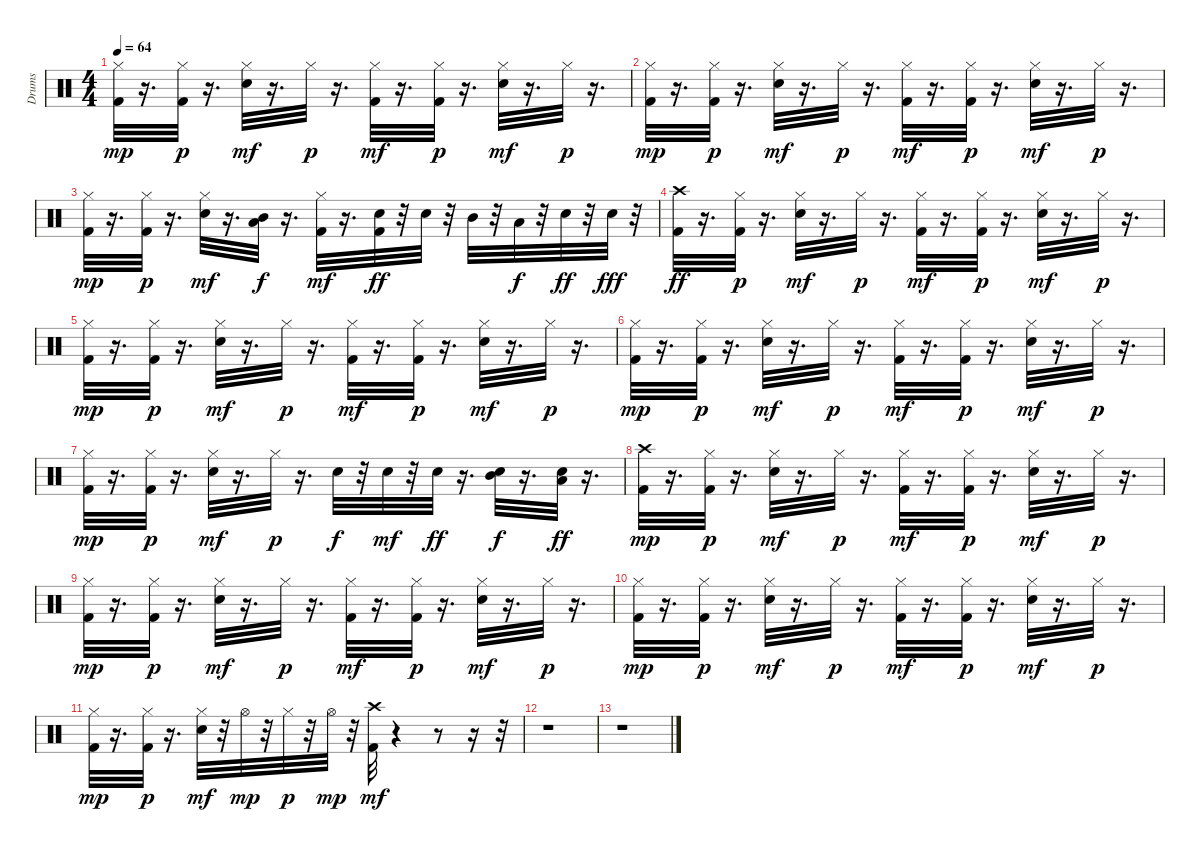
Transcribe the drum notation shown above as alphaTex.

\track ("Drums" "Drums") {instrument percussion}
\staff {score}
\articulation defaults
\ts (4 4)
\tempo 64
\clef neutral
\ks c
("Kick (hit) 2" "Hi-Hat (closed)").32{dy mp} r.16{d} ("Kick (hit) 2" "Hi-Hat (closed)").32{dy p} r.16{d} ("Snare (hit) 2" "Hi-Hat (closed)").32{dy mf} r.16{d} "Hi-Hat (closed)".32{dy p} r.16{d} ("Kick (hit) 2" "Hi-Hat (closed)").32{dy mf} r.16{d} ("Kick (hit) 2" "Hi-Hat (closed)").32{dy p} r.16{d} ("Snare (hit) 2" "Hi-Hat (closed)").32{dy mf} r.16{d} "Hi-Hat (closed)".32{dy p} r.16{d} |
("Kick (hit) 2" "Hi-Hat (closed)").32{dy mp} r.16{d} ("Kick (hit) 2" "Hi-Hat (closed)").32{dy p} r.16{d} ("Snare (hit) 2" "Hi-Hat (closed)").32{dy mf} r.16{d} "Hi-Hat (closed)".32{dy p} r.16{d} ("Kick (hit) 2" "Hi-Hat (closed)").32{dy mf} r.16{d} ("Kick (hit) 2" "Hi-Hat (closed)").32{dy p} r.16{d} ("Snare (hit) 2" "Hi-Hat (closed)").32{dy mf} r.16{d} "Hi-Hat (closed)".32{dy p} r.16{d} |
("Kick (hit) 2" "Hi-Hat (closed)").32{dy mp} r.16{d} ("Kick (hit) 2" "Hi-Hat (closed)").32{dy p} r.16{d} ("Snare (hit) 2" "Hi-Hat (closed)").32{dy mf} r.16{d} ("Mid Tom (hit)" "Low Tom (hit)").32{dy f} r.16{d} ("Kick (hit) 2" "Hi-Hat (closed)").32{dy mf} r.16{d} ("Kick (hit) 2" "Snare (hit) 2").32{dy ff} r.32 "Snare (hit) 2".32 r.32 "Mid Tom (hit)".32 r.32 "Low Tom (hit)".32{dy f} r.32 "Snare (hit) 2".32{dy ff} r.32 "Snare (hit) 2".32{dy fff} r.32 |
("Kick (hit) 2" "Crash high (hit)").32{dy ff} r.16{d} ("Kick (hit) 2" "Hi-Hat (closed)").32{dy p} r.16{d} ("Snare (hit) 2" "Hi-Hat (closed)").32{dy mf} r.16{d} "Hi-Hat (closed)".32{dy p} r.16{d} ("Kick (hit) 2" "Hi-Hat (closed)").32{dy mf} r.16{d} ("Kick (hit) 2" "Hi-Hat (closed)").32{dy p} r.16{d} ("Snare (hit) 2" "Hi-Hat (closed)").32{dy mf} r.16{d} "Hi-Hat (closed)".32{dy p} r.16{d} |
("Kick (hit) 2" "Hi-Hat (closed)").32{dy mp} r.16{d} ("Kick (hit) 2" "Hi-Hat (closed)").32{dy p} r.16{d} ("Snare (hit) 2" "Hi-Hat (closed)").32{dy mf} r.16{d} "Hi-Hat (closed)".32{dy p} r.16{d} ("Kick (hit) 2" "Hi-Hat (closed)").32{dy mf} r.16{d} ("Kick (hit) 2" "Hi-Hat (closed)").32{dy p} r.16{d} ("Snare (hit) 2" "Hi-Hat (closed)").32{dy mf} r.16{d} "Hi-Hat (closed)".32{dy p} r.16{d} |
("Kick (hit) 2" "Hi-Hat (closed)").32{dy mp} r.16{d} ("Kick (hit) 2" "Hi-Hat (closed)").32{dy p} r.16{d} ("Snare (hit) 2" "Hi-Hat (closed)").32{dy mf} r.16{d} "Hi-Hat (closed)".32{dy p} r.16{d} ("Kick (hit) 2" "Hi-Hat (closed)").32{dy mf} r.16{d} ("Kick (hit) 2" "Hi-Hat (closed)").32{dy p} r.16{d} ("Snare (hit) 2" "Hi-Hat (closed)").32{dy mf} r.16{d} "Hi-Hat (closed)".32{dy p} r.16{d} |
("Kick (hit) 2" "Hi-Hat (closed)").32{dy mp} r.16{d} ("Kick (hit) 2" "Hi-Hat (closed)").32{dy p} r.16{d} ("Snare (hit) 2" "Hi-Hat (closed)").32{dy mf} r.16{d} "Hi-Hat (closed)".32{dy p} r.16{d} "Snare (hit) 2".32{dy f} r.32 "Snare (hit) 2".32{dy mf} r.32 "Snare (hit) 2".32{dy ff} r.16{d} ("Snare (hit) 2" "Mid Tom (hit)").32{dy f} r.16{d} ("Snare (hit) 2" "Low Tom (hit)").32{dy ff} r.16{d} |
("Kick (hit) 2" "Crash high (hit)").32{dy mp} r.16{d} ("Kick (hit) 2" "Hi-Hat (closed)").32{dy p} r.16{d} ("Snare (hit) 2" "Hi-Hat (closed)").32{dy mf} r.16{d} "Hi-Hat (closed)".32{dy p} r.16{d} ("Kick (hit) 2" "Hi-Hat (closed)").32{dy mf} r.16{d} ("Kick (hit) 2" "Hi-Hat (closed)").32{dy p} r.16{d} ("Snare (hit) 2" "Hi-Hat (closed)").32{dy mf} r.16{d} "Hi-Hat (closed)".32{dy p} r.16{d} |
("Kick (hit) 2" "Hi-Hat (closed)").32{dy mp} r.16{d} ("Kick (hit) 2" "Hi-Hat (closed)").32{dy p} r.16{d} ("Snare (hit) 2" "Hi-Hat (closed)").32{dy mf} r.16{d} "Hi-Hat (closed)".32{dy p} r.16{d} ("Kick (hit) 2" "Hi-Hat (closed)").32{dy mf} r.16{d} ("Kick (hit) 2" "Hi-Hat (closed)").32{dy p} r.16{d} ("Snare (hit) 2" "Hi-Hat (closed)").32{dy mf} r.16{d} "Hi-Hat (closed)".32{dy p} r.16{d} |
("Kick (hit) 2" "Hi-Hat (closed)").32{dy mp} r.16{d} ("Kick (hit) 2" "Hi-Hat (closed)").32{dy p} r.16{d} ("Snare (hit) 2" "Hi-Hat (closed)").32{dy mf} r.16{d} "Hi-Hat (closed)".32{dy p} r.16{d} ("Kick (hit) 2" "Hi-Hat (closed)").32{dy mf} r.16{d} ("Kick (hit) 2" "Hi-Hat (closed)").32{dy p} r.16{d} ("Snare (hit) 2" "Hi-Hat (closed)").32{dy mf} r.16{d} "Hi-Hat (closed)".32{dy p} r.16{d} |
("Kick (hit) 2" "Hi-Hat (closed)").32{dy mp} r.16{d} ("Kick (hit) 2" "Hi-Hat (closed)").32{dy p} r.16{d} ("Snare (hit) 2" "Hi-Hat (closed)").32{dy mf} r.32 "Hi-Hat (open)".32{dy mp} r.32 "Hi-Hat (closed)".32{dy p} r.32 "Hi-Hat (open)".32{dy mp} r.32 ("Kick (hit) 2" "Crash high (hit)").32{dy mf} r.4 r.8 r.16 r.32 |
r.1 |
r.1
